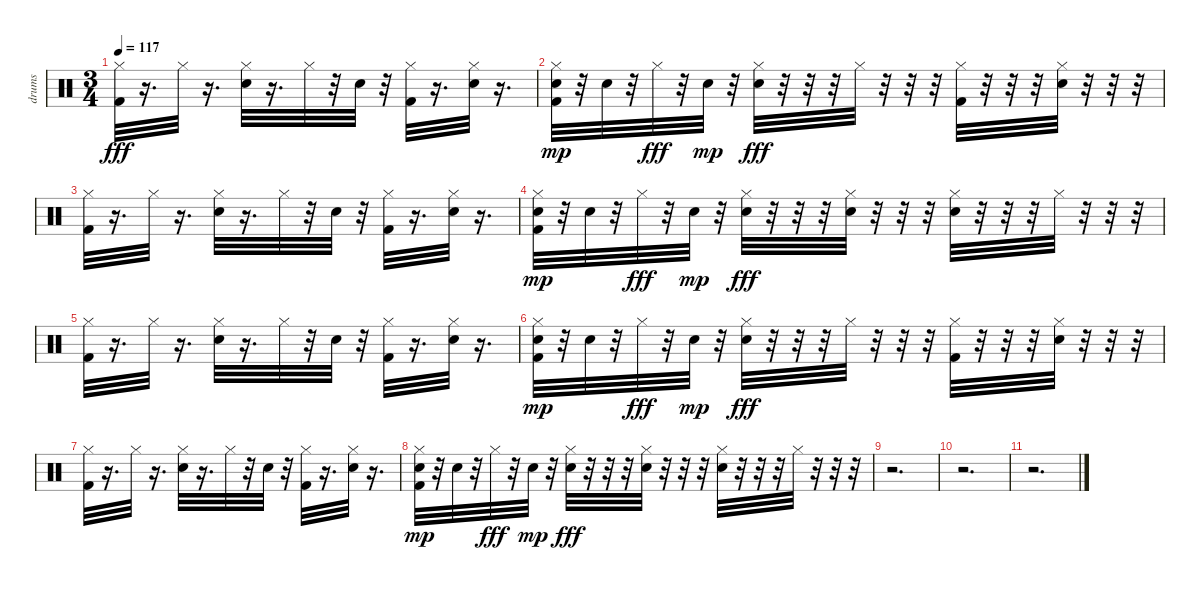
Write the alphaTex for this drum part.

\track ("drums" "drums") {instrument percussion}
\staff {score}
\articulation defaults
\ts (3 4)
\tempo 117
\clef neutral
\ks c
("Hi-Hat (closed)" "Kick (hit) 2").32{dy fff} r.16{d} "Hi-Hat (closed)".32 r.16{d} ("Electric Snare (hit)" "Hi-Hat (closed)").32 r.16{d} "Hi-Hat (closed)".32 r.32 "Electric Snare (hit)".32 r.32 ("Hi-Hat (closed)" "Kick (hit) 2").32 r.16{d} ("Electric Snare (hit)" "Hi-Hat (closed)").32 r.16{d} |
("Hi-Hat (closed)" "Kick (hit) 2" "Electric Snare (hit)").32{dy mp} r.32 "Electric Snare (hit)".32 r.32 "Hi-Hat (closed)".32{dy fff} r.32 "Electric Snare (hit)".32{dy mp} r.32 ("Electric Snare (hit)" "Hi-Hat (closed)").32{dy fff} r.32 r.32 r.32 "Hi-Hat (closed)".32 r.32 r.32 r.32 ("Hi-Hat (closed)" "Kick (hit) 2").32 r.32 r.32 r.32 ("Electric Snare (hit)" "Hi-Hat (closed)").32 r.32 r.32 r.32 |
("Hi-Hat (closed)" "Kick (hit) 2").32 r.16{d} "Hi-Hat (closed)".32 r.16{d} ("Electric Snare (hit)" "Hi-Hat (closed)").32 r.16{d} "Hi-Hat (closed)".32 r.32 "Electric Snare (hit)".32 r.32 ("Hi-Hat (closed)" "Kick (hit) 2").32 r.16{d} ("Electric Snare (hit)" "Hi-Hat (closed)").32 r.16{d} |
("Hi-Hat (closed)" "Kick (hit) 2" "Electric Snare (hit)").32{dy mp} r.32 "Electric Snare (hit)".32 r.32 "Hi-Hat (closed)".32{dy fff} r.32 "Electric Snare (hit)".32{dy mp} r.32 ("Electric Snare (hit)" "Hi-Hat (closed)").32{dy fff} r.32 r.32 r.32 ("Hi-Hat (closed)" "Electric Snare (hit)").32 r.32 r.32 r.32 ("Hi-Hat (closed)" "Electric Snare (hit)").32 r.32 r.32 r.32 "Hi-Hat (closed)".32 r.32 r.32 r.32 |
("Hi-Hat (closed)" "Kick (hit) 2").32 r.16{d} "Hi-Hat (closed)".32 r.16{d} ("Electric Snare (hit)" "Hi-Hat (closed)").32 r.16{d} "Hi-Hat (closed)".32 r.32 "Electric Snare (hit)".32 r.32 ("Hi-Hat (closed)" "Kick (hit) 2").32 r.16{d} ("Electric Snare (hit)" "Hi-Hat (closed)").32 r.16{d} |
("Hi-Hat (closed)" "Kick (hit) 2" "Electric Snare (hit)").32{dy mp} r.32 "Electric Snare (hit)".32 r.32 "Hi-Hat (closed)".32{dy fff} r.32 "Electric Snare (hit)".32{dy mp} r.32 ("Electric Snare (hit)" "Hi-Hat (closed)").32{dy fff} r.32 r.32 r.32 "Hi-Hat (closed)".32 r.32 r.32 r.32 ("Hi-Hat (closed)" "Kick (hit) 2").32 r.32 r.32 r.32 ("Electric Snare (hit)" "Hi-Hat (closed)").32 r.32 r.32 r.32 |
("Hi-Hat (closed)" "Kick (hit) 2").32 r.16{d} "Hi-Hat (closed)".32 r.16{d} ("Electric Snare (hit)" "Hi-Hat (closed)").32 r.16{d} "Hi-Hat (closed)".32 r.32 "Electric Snare (hit)".32 r.32 ("Hi-Hat (closed)" "Kick (hit) 2").32 r.16{d} ("Electric Snare (hit)" "Hi-Hat (closed)").32 r.16{d} |
("Hi-Hat (closed)" "Kick (hit) 2" "Electric Snare (hit)").32{dy mp} r.32 "Electric Snare (hit)".32 r.32 "Hi-Hat (closed)".32{dy fff} r.32 "Electric Snare (hit)".32{dy mp} r.32 ("Electric Snare (hit)" "Hi-Hat (closed)").32{dy fff} r.32 r.32 r.32 ("Hi-Hat (closed)" "Electric Snare (hit)").32 r.32 r.32 r.32 ("Hi-Hat (closed)" "Electric Snare (hit)").32 r.32 r.32 r.32 "Hi-Hat (closed)".32 r.32 r.32 r.32 |
r.2{d} |
r.2{d} |
r.2{d}
